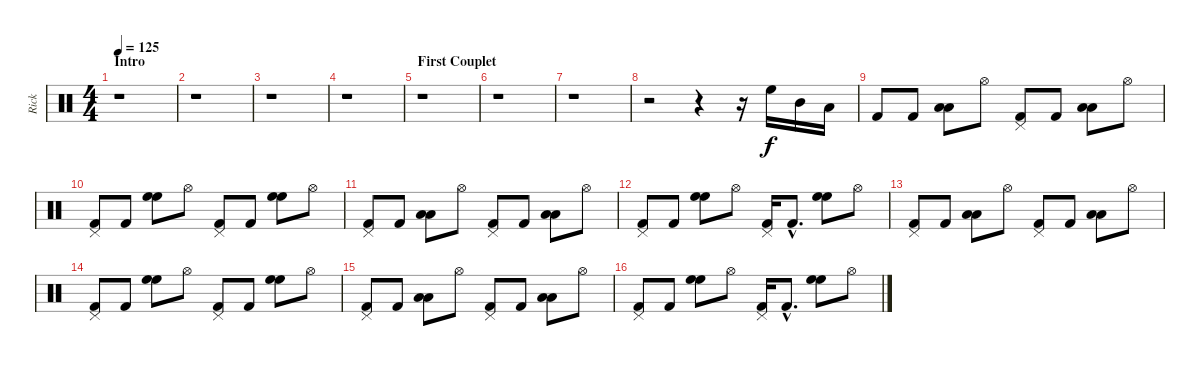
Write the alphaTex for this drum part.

\track ("Rick" "Rick") {instrument percussion}
\staff {score}
\articulation defaults
\ts (4 4)
\section ("" "Intro")
\tempo 125
\clef neutral
\ks c
r.1{dy f} |
r.1 |
r.1 |
r.1 |
\section ("" "First Couplet")
r.1 |
r.1 |
r.1 |
r.2 r.4 r.16 "High Floor Tom (hit)".16 "Mid Tom (hit)".16 "Low Floor Tom (hit)".16 |
"Kick (hit) 2".8 "Kick (hit) 2".8 ("Low Tom (hit)" "Low Tom (hit)").8 "Hi-Hat (open)".8 ("Pedal Hi-Hat (hit)" "Kick (hit) 2").8 "Kick (hit) 2".8 ("Low Tom (hit)" "Low Tom (hit)").8 "Hi-Hat (open)".8 |
("Pedal Hi-Hat (hit)" "Kick (hit) 2").8 "Kick (hit) 2".8 ("High Floor Tom (hit)" "High Floor Tom (hit)").8 "Hi-Hat (open)".8 ("Pedal Hi-Hat (hit)" "Kick (hit) 2").8 "Kick (hit) 2".8 ("High Floor Tom (hit)" "High Floor Tom (hit)").8 "Hi-Hat (open)".8 |
("Pedal Hi-Hat (hit)" "Kick (hit) 2").8 "Kick (hit) 2".8 ("Low Tom (hit)" "Low Tom (hit)").8 "Hi-Hat (open)".8 ("Pedal Hi-Hat (hit)" "Kick (hit) 2").8 "Kick (hit) 2".8 ("Low Tom (hit)" "Low Tom (hit)").8 "Hi-Hat (open)".8 |
("Pedal Hi-Hat (hit)" "Kick (hit) 2").8 "Kick (hit) 2".8 ("High Floor Tom (hit)" "High Floor Tom (hit)").8 "Hi-Hat (open)".8 ("Pedal Hi-Hat (hit)" "Kick (hit) 2").16 "Kick (hit) 2"{hac}.8{d} ("High Floor Tom (hit)" "High Floor Tom (hit)").8 "Hi-Hat (open)".8 |
("Pedal Hi-Hat (hit)" "Kick (hit) 2").8 "Kick (hit) 2".8 ("Low Tom (hit)" "Low Tom (hit)").8 "Hi-Hat (open)".8 ("Pedal Hi-Hat (hit)" "Kick (hit) 2").8 "Kick (hit) 2".8 ("Low Tom (hit)" "Low Tom (hit)").8 "Hi-Hat (open)".8 |
("Pedal Hi-Hat (hit)" "Kick (hit) 2").8 "Kick (hit) 2".8 ("High Floor Tom (hit)" "High Floor Tom (hit)").8 "Hi-Hat (open)".8 ("Pedal Hi-Hat (hit)" "Kick (hit) 2").8 "Kick (hit) 2".8 ("High Floor Tom (hit)" "High Floor Tom (hit)").8 "Hi-Hat (open)".8 |
("Pedal Hi-Hat (hit)" "Kick (hit) 2").8 "Kick (hit) 2".8 ("Low Tom (hit)" "Low Tom (hit)").8 "Hi-Hat (open)".8 ("Pedal Hi-Hat (hit)" "Kick (hit) 2").8 "Kick (hit) 2".8 ("Low Tom (hit)" "Low Tom (hit)").8 "Hi-Hat (open)".8 |
("Pedal Hi-Hat (hit)" "Kick (hit) 2").8 "Kick (hit) 2".8 ("High Floor Tom (hit)" "High Floor Tom (hit)").8 "Hi-Hat (open)".8 ("Pedal Hi-Hat (hit)" "Kick (hit) 2").16 "Kick (hit) 2"{hac}.8{d} ("High Floor Tom (hit)" "High Floor Tom (hit)").8 "Hi-Hat (open)".8
